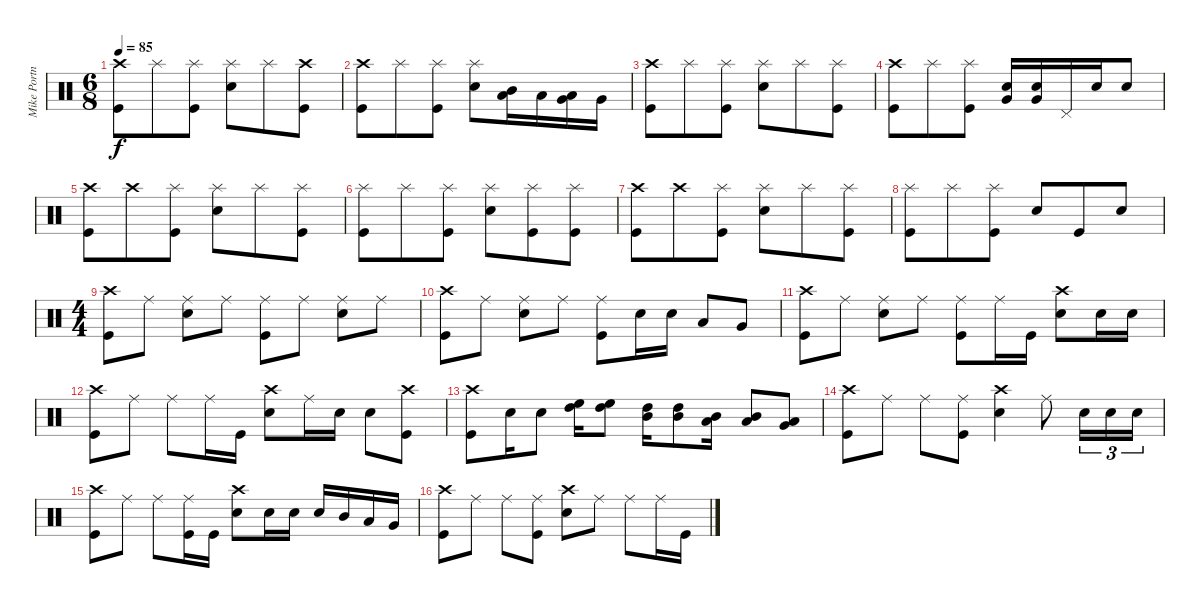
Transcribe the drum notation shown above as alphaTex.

\track ("Mike Portnoy" "Mike Portn") {instrument percussion}
\staff {score}
\articulation defaults
\ts (6 8)
\tempo 85
\clef neutral
\ks c
("Crash high (hit)" "Kick (hit)").8{dy f} "Splash (hit)".8 ("Splash (hit)" "Kick (hit)").8 ("Splash (hit)" "Electric Snare (hit)").8 "Splash (hit)".8 ("Crash high (hit)" "Kick (hit)").8 |
("Crash high (hit)" "Kick (hit)").8 "Splash (hit)".8 ("Splash (hit)" "Kick (hit)").8 ("Splash (hit)" "Electric Snare (hit)").8 ("Mid Tom (hit)" "Low Tom (hit)").16 "Low Tom (hit)".16 ("Low Tom (hit)" "Very Low Tom (hit)").16 "Very Low Tom (hit)".16 |
("Crash high (hit)" "Kick (hit)").8 "Splash (hit)".8 ("Splash (hit)" "Kick (hit)").8 ("Splash (hit)" "Electric Snare (hit)").8 "Splash (hit)".8 ("Splash (hit)" "Kick (hit)").8 |
("Crash high (hit)" "Kick (hit)").8 "Splash (hit)".8 ("Splash (hit)" "Kick (hit)").8 ("Very Low Tom (hit)" "Electric Snare (hit)").16 ("Very Low Tom (hit)" "Electric Snare (hit)").16 "Pedal Hi-Hat (hit)".16 "Electric Snare (hit)".16 "Electric Snare (hit)".8 |
("Crash high (hit)" "Kick (hit)").8 "Crash high (hit)".8 ("Splash (hit)" "Kick (hit)").8 ("Splash (hit)" "Electric Snare (hit)").8 "Splash (hit)".8 ("Splash (hit)" "Kick (hit)").8 |
("Splash (hit)" "Kick (hit)").8 "Splash (hit)".8 ("Splash (hit)" "Kick (hit)").8 ("Splash (hit)" "Electric Snare (hit)").8 ("Splash (hit)" "Kick (hit)").8 ("Splash (hit)" "Kick (hit)").8 |
("Crash high (hit)" "Kick (hit)").8 "Crash high (hit)".8 ("Splash (hit)" "Kick (hit)").8 ("Splash (hit)" "Electric Snare (hit)").8 "Splash (hit)".8 ("Splash (hit)" "Kick (hit)").8 |
("Splash (hit)" "Kick (hit)").8 "Splash (hit)".8 ("Splash (hit)" "Kick (hit)").8 "Electric Snare (hit)".8 "Kick (hit)".8 "Electric Snare (hit)".8 |
\ts (4 4)
("Crash high (hit)" "Kick (hit)").8 "Ride (middle)".8 ("Ride (middle)" "Electric Snare (hit)").8 "Ride (middle)".8 ("Ride (middle)" "Kick (hit)").8 "Ride (middle)".8 ("Ride (middle)" "Electric Snare (hit)").8 "Ride (middle)".8 |
("Crash high (hit)" "Kick (hit)").8 "Ride (middle)".8 ("Ride (middle)" "Electric Snare (hit)").8 "Ride (middle)".8 ("Ride (middle)" "Kick (hit)").8 "Electric Snare (hit)".16 "Electric Snare (hit)".16 "Low Tom (hit)".8 "Very Low Tom (hit)".8 |
("Crash high (hit)" "Kick (hit)").8 "Ride (middle)".8 ("Ride (middle)" "Electric Snare (hit)").8 "Ride (middle)".8 ("Ride (middle)" "Kick (hit)").8 "Ride (middle)".16 "Kick (hit)".16 ("Crash high (hit)" "Electric Snare (hit)").8 "Electric Snare (hit)".16 "Electric Snare (hit)".16 |
("Crash high (hit)" "Kick (hit)").8 "Ride (middle)".8 "Ride (middle)".8 "Ride (middle)".16 "Kick (hit)".16 ("Crash high (hit)" "Electric Snare (hit)").8 "Ride (middle)".16 "Electric Snare (hit)".16 "Electric Snare (hit)".8 ("Crash high (hit)" "Kick (hit)").8 |
("Crash high (hit)" "Kick (hit)").8 "Electric Snare (hit)".16 "Electric Snare (hit)".8 ("High Floor Tom (hit)" "High Tom (hit)").16 ("High Floor Tom (hit)" "High Tom (hit)").8 ("High Tom (hit)" "Mid Tom (hit)").16 ("High Tom (hit)" "Mid Tom (hit)").8 ("Mid Tom (hit)" "Low Tom (hit)").16 ("Mid Tom (hit)" "Low Tom (hit)").8 ("Low Tom (hit)" "Very Low Tom (hit)").8 |
("Crash high (hit)" "Kick (hit)").8 "Ride (middle)".8 "Ride (middle)".8 ("Ride (middle)" "Kick (hit)").8 ("Crash high (hit)" "Electric Snare (hit)").4 "Ride (middle)".8 "Electric Snare (hit)".16{tu (3 2)} "Electric Snare (hit)".16{tu (3 2)} "Electric Snare (hit)".16{tu (3 2)} |
("Crash high (hit)" "Kick (hit)").8 "Ride (middle)".8 "Ride (middle)".8 ("Ride (middle)" "Kick (hit)").16 "Kick (hit)".16 ("Crash high (hit)" "Electric Snare (hit)").8 "Electric Snare (hit)".16 "Electric Snare (hit)".16 "Electric Snare (hit)".16 "Mid Tom (hit)".16 "Low Tom (hit)".16 "Very Low Tom (hit)".16 |
("Crash high (hit)" "Kick (hit)").8 "Ride (middle)".8 "Ride (middle)".8 ("Ride (middle)" "Kick (hit)").8 ("Crash high (hit)" "Electric Snare (hit)").8 "Ride (middle)".8 "Ride (middle)".8 "Ride (middle)".16 "Kick (hit)".16
